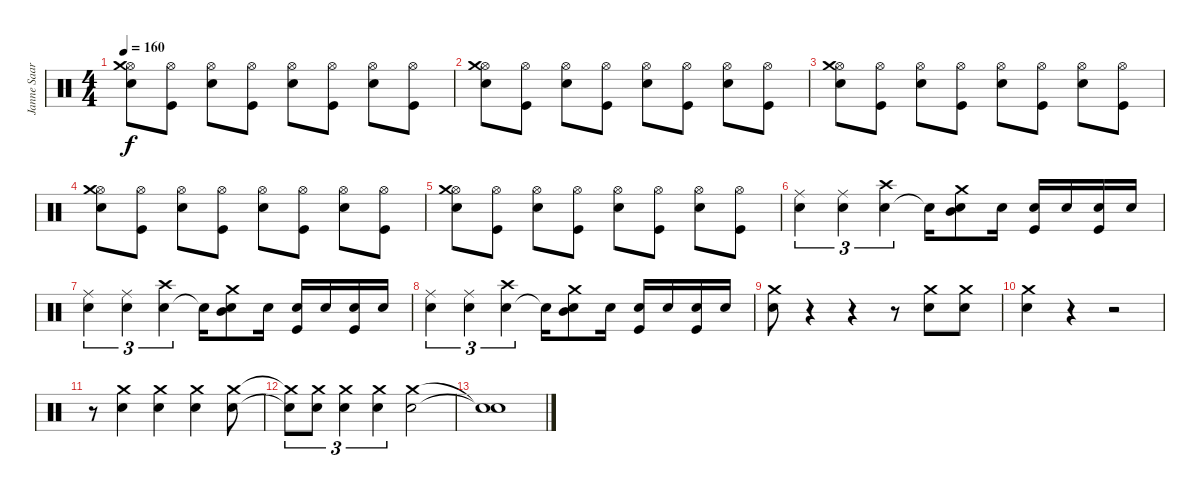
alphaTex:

\track ("Janne Saarenpaa" "Janne Saar") {instrument percussion}
\staff {score}
\articulation defaults
\ts (4 4)
\tempo 160
\clef neutral
\ks c
("Hi-Hat (open)" "Snare (hit) 2" "Crash medium (hit)").8{dy f} ("Hi-Hat (open)" "Kick (hit)").8 ("Hi-Hat (open)" "Snare (hit) 2").8 ("Hi-Hat (open)" "Kick (hit)").8 ("Hi-Hat (open)" "Snare (hit) 2").8 ("Hi-Hat (open)" "Kick (hit)").8 ("Hi-Hat (open)" "Snare (hit) 2").8 ("Hi-Hat (open)" "Kick (hit)").8 |
("Hi-Hat (open)" "Snare (hit) 2" "Crash medium (hit)").8 ("Hi-Hat (open)" "Kick (hit)").8 ("Hi-Hat (open)" "Snare (hit) 2").8 ("Hi-Hat (open)" "Kick (hit)").8 ("Hi-Hat (open)" "Snare (hit) 2").8 ("Hi-Hat (open)" "Kick (hit)").8 ("Hi-Hat (open)" "Snare (hit) 2").8 ("Hi-Hat (open)" "Kick (hit)").8 |
("Hi-Hat (open)" "Snare (hit) 2" "Crash medium (hit)").8 ("Hi-Hat (open)" "Kick (hit)").8 ("Hi-Hat (open)" "Snare (hit) 2").8 ("Hi-Hat (open)" "Kick (hit)").8 ("Hi-Hat (open)" "Snare (hit) 2").8 ("Hi-Hat (open)" "Kick (hit)").8 ("Hi-Hat (open)" "Snare (hit) 2").8 ("Hi-Hat (open)" "Kick (hit)").8 |
("Hi-Hat (open)" "Snare (hit) 2" "Crash medium (hit)").8 ("Hi-Hat (open)" "Kick (hit)").8 ("Hi-Hat (open)" "Snare (hit) 2").8 ("Hi-Hat (open)" "Kick (hit)").8 ("Hi-Hat (open)" "Snare (hit) 2").8 ("Hi-Hat (open)" "Kick (hit)").8 ("Hi-Hat (open)" "Snare (hit) 2").8 ("Hi-Hat (open)" "Kick (hit)").8 |
("Hi-Hat (open)" "Snare (hit) 2" "Crash medium (hit)").8 ("Hi-Hat (open)" "Kick (hit)").8 ("Hi-Hat (open)" "Snare (hit) 2").8 ("Hi-Hat (open)" "Kick (hit)").8 ("Hi-Hat (open)" "Snare (hit) 2").8 ("Hi-Hat (open)" "Kick (hit)").8 ("Hi-Hat (open)" "Snare (hit) 2").8 ("Hi-Hat (open)" "Kick (hit)").8 |
("Snare (hit) 2" "Ride (middle)").4{tu (3 2)} ("Snare (hit) 2" "Ride (middle)").4{tu (3 2)} ("Snare (hit) 2" "Crash high (hit)").4{tu (3 2)} "Snare (hit)"{t}.16 ("Mid Tom (hit)" "Snare (hit) 2" "Crash medium (hit)").8 "Snare (hit) 2".16 ("Kick (hit)" "Snare (hit) 2").16 "Snare (hit) 2".16 ("Kick (hit)" "Snare (hit) 2").16 "Snare (hit) 2".16 |
("Snare (hit) 2" "Ride (middle)").4{tu (3 2)} ("Snare (hit) 2" "Ride (middle)").4{tu (3 2)} ("Snare (hit) 2" "Crash high (hit)").4{tu (3 2)} "Snare (hit)"{t}.16 ("Mid Tom (hit)" "Snare (hit) 2" "Crash medium (hit)").8 "Snare (hit) 2".16 ("Kick (hit)" "Snare (hit) 2").16 "Snare (hit) 2".16 ("Kick (hit)" "Snare (hit) 2").16 "Snare (hit) 2".16 |
("Snare (hit) 2" "Ride (middle)").4{tu (3 2)} ("Snare (hit) 2" "Ride (middle)").4{tu (3 2)} ("Snare (hit) 2" "Crash high (hit)").4{tu (3 2)} "Snare (hit)"{t}.16 ("Mid Tom (hit)" "Snare (hit) 2" "Crash medium (hit)").8 "Snare (hit) 2".16 ("Kick (hit)" "Snare (hit) 2").16 "Snare (hit) 2".16 ("Kick (hit)" "Snare (hit) 2").16 "Snare (hit) 2".16 |
("Crash medium (hit)" "Snare (hit) 2").8 r.4 r.4 r.8 ("Crash medium (hit)" "Snare (hit) 2").8 ("Crash medium (hit)" "Snare (hit) 2").8 |
("Crash medium (hit)" "Snare (hit) 2").4 r.4 r.2 |
r.8 ("Snare (hit) 2" "Crash medium (hit)").4 ("Snare (hit) 2" "Crash medium (hit)").4 ("Snare (hit) 2" "Crash medium (hit)").4 ("Snare (hit) 2" "Crash medium (hit)").8 |
("Snare (hit) 2"{t} "Crash medium (hit)"{t}).8{tu (3 2)} ("Snare (hit) 2" "Crash medium (hit)").8{tu (3 2)} ("Snare (hit) 2" "Crash medium (hit)").4{tu (3 2)} ("Snare (hit) 2" "Crash medium (hit)").4{tu (3 2)} ("Snare (hit) 2" "Crash medium (hit)").2 |
("Snare (hit)"{t} "Snare (hit)"{t}).1
